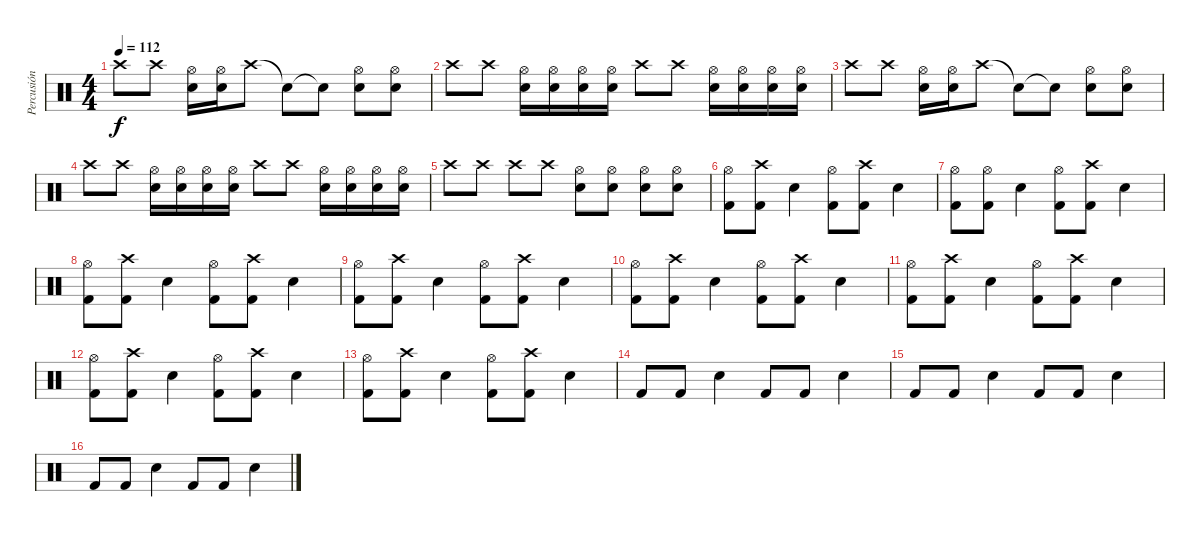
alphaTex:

\track ("Percusión" "Percusión") {instrument percussion}
\staff {score}
\articulation defaults
\ts (4 4)
\tempo 112
\clef neutral
\ks c "Crash high (hit)".8{dy f} "Crash high (hit)".8
("Hi-Hat (open)" "Snare (hit) 2").16 ("Hi-Hat (open)" "Snare (hit) 2").16 "Crash high (hit)".8 "Snare (hit)"{t}.8 "Snare (hit)"{t}.8 ("Hi-Hat (open)" "Snare (hit) 2").8 ("Hi-Hat (open)" "Snare (hit) 2").8 |
"Crash high (hit)".8 "Crash high (hit)".8 ("Hi-Hat (open)" "Snare (hit) 2").16 ("Hi-Hat (open)" "Snare (hit) 2").16 ("Hi-Hat (open)" "Snare (hit) 2").16 ("Hi-Hat (open)" "Snare (hit) 2").16 "Crash high (hit)".8 "Crash high (hit)".8 ("Hi-Hat (open)" "Snare (hit) 2").16 ("Hi-Hat (open)" "Snare (hit) 2").16 ("Hi-Hat (open)" "Snare (hit) 2").16 ("Hi-Hat (open)" "Snare (hit) 2").16 |
"Crash high (hit)".8 "Crash high (hit)".8 ("Hi-Hat (open)" "Snare (hit) 2").16 ("Hi-Hat (open)" "Snare (hit) 2").16 "Crash high (hit)".8 "Snare (hit)"{t}.8 "Snare (hit)"{t}.8 ("Hi-Hat (open)" "Snare (hit) 2").8 ("Hi-Hat (open)" "Snare (hit) 2").8 |
"Crash high (hit)".8 "Crash high (hit)".8 ("Hi-Hat (open)" "Snare (hit) 2").16 ("Hi-Hat (open)" "Snare (hit) 2").16 ("Hi-Hat (open)" "Snare (hit) 2").16 ("Hi-Hat (open)" "Snare (hit) 2").16 "Crash high (hit)".8 "Crash high (hit)".8 ("Hi-Hat (open)" "Snare (hit) 2").16 ("Hi-Hat (open)" "Snare (hit) 2").16 ("Hi-Hat (open)" "Snare (hit) 2").16 ("Hi-Hat (open)" "Snare (hit) 2").16 |
"Crash high (hit)".8 "Crash high (hit)".8 "Crash high (hit)".8 "Crash high (hit)".8 ("Hi-Hat (open)" "Snare (hit) 2").8 ("Hi-Hat (open)" "Snare (hit) 2").8 ("Hi-Hat (open)" "Snare (hit) 2").8 ("Hi-Hat (open)" "Snare (hit) 2").8 |
("Hi-Hat (open)" "Kick (hit) 2").8 ("Crash high (hit)" "Kick (hit) 2").8 "Snare (hit) 2".4 ("Hi-Hat (open)" "Kick (hit) 2").8 ("Crash high (hit)" "Kick (hit) 2").8 "Snare (hit) 2".4 |
("Hi-Hat (open)" "Kick (hit) 2").8 ("Hi-Hat (open)" "Kick (hit) 2").8 "Snare (hit) 2".4 ("Hi-Hat (open)" "Kick (hit) 2").8 ("Crash high (hit)" "Kick (hit) 2").8 "Snare (hit) 2".4 |
("Hi-Hat (open)" "Kick (hit) 2").8 ("Crash high (hit)" "Kick (hit) 2").8 "Snare (hit) 2".4 ("Hi-Hat (open)" "Kick (hit) 2").8 ("Crash high (hit)" "Kick (hit) 2").8 "Snare (hit) 2".4 |
("Hi-Hat (open)" "Kick (hit) 2").8 ("Crash high (hit)" "Kick (hit) 2").8 "Snare (hit) 2".4 ("Hi-Hat (open)" "Kick (hit) 2").8 ("Crash high (hit)" "Kick (hit) 2").8 "Snare (hit) 2".4 |
("Hi-Hat (open)" "Kick (hit) 2").8 ("Crash high (hit)" "Kick (hit) 2").8 "Snare (hit) 2".4 ("Hi-Hat (open)" "Kick (hit) 2").8 ("Crash high (hit)" "Kick (hit) 2").8 "Snare (hit) 2".4 |
("Hi-Hat (open)" "Kick (hit) 2").8 ("Crash high (hit)" "Kick (hit) 2").8 "Snare (hit) 2".4 ("Hi-Hat (open)" "Kick (hit) 2").8 ("Crash high (hit)" "Kick (hit) 2").8 "Snare (hit) 2".4 |
("Hi-Hat (open)" "Kick (hit) 2").8 ("Crash high (hit)" "Kick (hit) 2").8 "Snare (hit) 2".4 ("Hi-Hat (open)" "Kick (hit) 2").8 ("Crash high (hit)" "Kick (hit) 2").8 "Snare (hit) 2".4 |
("Hi-Hat (open)" "Kick (hit) 2").8 ("Crash high (hit)" "Kick (hit) 2").8 "Snare (hit) 2".4 ("Hi-Hat (open)" "Kick (hit) 2").8 ("Crash high (hit)" "Kick (hit) 2").8 "Snare (hit) 2".4 |
"Kick (hit) 2".8 "Kick (hit) 2".8 "Snare (hit) 2".4 "Kick (hit) 2".8 "Kick (hit) 2".8 "Snare (hit) 2".4 |
"Kick (hit) 2".8 "Kick (hit) 2".8 "Snare (hit) 2".4 "Kick (hit) 2".8 "Kick (hit) 2".8 "Snare (hit) 2".4 |
"Kick (hit) 2".8 "Kick (hit) 2".8 "Snare (hit) 2".4 "Kick (hit) 2".8 "Kick (hit) 2".8 "Snare (hit) 2".4
